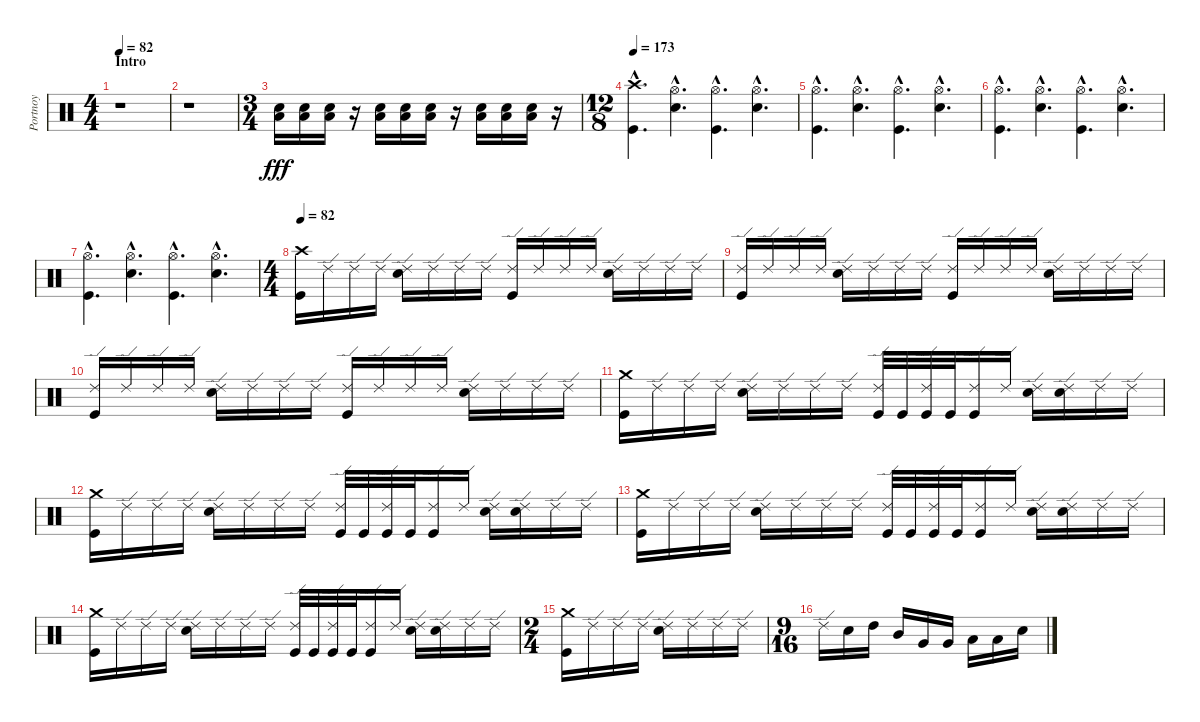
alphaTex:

\track ("Portnoy" "Portnoy") {instrument percussion}
\staff {score}
\articulation defaults
\ts (4 4)
\section ("" "Intro")
\tempo 82
\clef neutral
\ks c
r.1{dy fff} |
r.1 |
\ts (3 4)
("Snare (hit) 2" "Low Floor Tom (hit)").16 ("Snare (hit) 2" "Low Floor Tom (hit)").16 ("Snare (hit) 2" "Low Floor Tom (hit)").16 r.16 ("Snare (hit) 2" "Low Floor Tom (hit)").16 ("Snare (hit) 2" "Low Floor Tom (hit)").16 ("Snare (hit) 2" "Low Floor Tom (hit)").16 r.16 ("Snare (hit) 2" "Low Floor Tom (hit)").16 ("Snare (hit) 2" "Low Floor Tom (hit)").16 ("Snare (hit) 2" "Low Floor Tom (hit)").16 r.16 |
\ts (12 8)
\tempo 173
("Crash high (hit)"{hac} "Kick (hit)"{hac}).4{d} ("Hi-Hat (open)"{hac} "Snare (hit) 2"{hac}).4{d} ("Hi-Hat (open)"{hac} "Kick (hit)"{hac}).4{d} ("Hi-Hat (open)"{hac} "Snare (hit) 2"{hac}).4{d} |
("Hi-Hat (open)"{hac} "Kick (hit)"{hac}).4{d} ("Hi-Hat (open)"{hac} "Snare (hit) 2"{hac}).4{d} ("Hi-Hat (open)"{hac} "Kick (hit)"{hac}).4{d} ("Hi-Hat (open)"{hac} "Snare (hit) 2"{hac}).4{d} |
("Hi-Hat (open)"{hac} "Kick (hit)"{hac}).4{d} ("Hi-Hat (open)"{hac} "Snare (hit) 2"{hac}).4{d} ("Hi-Hat (open)"{hac} "Kick (hit)"{hac}).4{d} ("Hi-Hat (open)"{hac} "Snare (hit) 2"{hac}).4{d} |
("Hi-Hat (open)"{hac} "Kick (hit)"{hac}).4{d} ("Hi-Hat (open)"{hac} "Snare (hit) 2"{hac}).4{d} ("Hi-Hat (open)"{hac} "Kick (hit)"{hac}).4{d} ("Hi-Hat (open)"{hac} "Snare (hit) 2"{hac}).4{d} |
\ts (4 4)
\tempo 82
("Crash high (hit)" "Kick (hit)").16 "Ride (edge) 2".16 "Ride (edge) 2".16 "Ride (edge) 2".16 ("Ride (edge) 2" "Snare (hit) 2").16 "Ride (edge) 2".16 "Ride (edge) 2".16 "Ride (edge) 2".16 ("Ride (edge) 2" "Kick (hit)").16 "Ride (edge) 2".16 "Ride (edge) 2".16 "Ride (edge) 2".16 ("Ride (edge) 2" "Snare (hit) 2").16 "Ride (edge) 2".16 "Ride (edge) 2".16 "Ride (edge) 2".16 |
("Ride (edge) 2" "Kick (hit)").16 "Ride (edge) 2".16 "Ride (edge) 2".16 "Ride (edge) 2".16 ("Ride (edge) 2" "Snare (hit) 2").16 "Ride (edge) 2".16 "Ride (edge) 2".16 "Ride (edge) 2".16 ("Ride (edge) 2" "Kick (hit)").16 "Ride (edge) 2".16 "Ride (edge) 2".16 "Ride (edge) 2".16 ("Ride (edge) 2" "Snare (hit) 2").16 "Ride (edge) 2".16 "Ride (edge) 2".16 "Ride (edge) 2".16 |
("Ride (edge) 2" "Kick (hit)").16 "Ride (edge) 2".16 "Ride (edge) 2".16 "Ride (edge) 2".16 ("Ride (edge) 2" "Snare (hit) 2").16 "Ride (edge) 2".16 "Ride (edge) 2".16 "Ride (edge) 2".16 ("Ride (edge) 2" "Kick (hit)").16 "Ride (edge) 2".16 "Ride (edge) 2".16 "Ride (edge) 2".16 ("Ride (edge) 2" "Snare (hit) 2").16 "Ride (edge) 2".16 "Ride (edge) 2".16 "Ride (edge) 2".16 |
("Crash medium (hit)" "Kick (hit)").16 "Ride (edge) 2".16 "Ride (edge) 2".16 "Ride (edge) 2".16 ("Ride (edge) 2" "Snare (hit) 2").16 "Ride (edge) 2".16 "Ride (edge) 2".16 "Ride (edge) 2".16 ("Ride (edge) 2" "Kick (hit)").32 "Kick (hit)".32 ("Ride (edge) 2" "Kick (hit)").32 "Kick (hit)".32 ("Ride (edge) 2" "Kick (hit)").16 "Ride (edge) 2".16 ("Ride (edge) 2" "Snare (hit) 2").16 ("Ride (edge) 2" "Snare (hit) 2").16 "Ride (edge) 2".16 "Ride (edge) 2".16 |
("Crash medium (hit)" "Kick (hit)").16 "Ride (edge) 2".16 "Ride (edge) 2".16 "Ride (edge) 2".16 ("Ride (edge) 2" "Snare (hit) 2").16 "Ride (edge) 2".16 "Ride (edge) 2".16 "Ride (edge) 2".16 ("Ride (edge) 2" "Kick (hit)").32 "Kick (hit)".32 ("Ride (edge) 2" "Kick (hit)").32 "Kick (hit)".32 ("Ride (edge) 2" "Kick (hit)").16 "Ride (edge) 2".16 ("Ride (edge) 2" "Snare (hit) 2").16 ("Ride (edge) 2" "Snare (hit) 2").16 "Ride (edge) 2".16 "Ride (edge) 2".16 |
("Crash medium (hit)" "Kick (hit)").16 "Ride (edge) 2".16 "Ride (edge) 2".16 "Ride (edge) 2".16 ("Ride (edge) 2" "Snare (hit) 2").16 "Ride (edge) 2".16 "Ride (edge) 2".16 "Ride (edge) 2".16 ("Ride (edge) 2" "Kick (hit)").32 "Kick (hit)".32 ("Ride (edge) 2" "Kick (hit)").32 "Kick (hit)".32 ("Ride (edge) 2" "Kick (hit)").16 "Ride (edge) 2".16 ("Ride (edge) 2" "Snare (hit) 2").16 ("Ride (edge) 2" "Snare (hit) 2").16 "Ride (edge) 2".16 "Ride (edge) 2".16 |
("Crash medium (hit)" "Kick (hit)").16 "Ride (edge) 2".16 "Ride (edge) 2".16 "Ride (edge) 2".16 ("Ride (edge) 2" "Snare (hit) 2").16 "Ride (edge) 2".16 "Ride (edge) 2".16 "Ride (edge) 2".16 ("Ride (edge) 2" "Kick (hit)").32 "Kick (hit)".32 ("Ride (edge) 2" "Kick (hit)").32 "Kick (hit)".32 ("Ride (edge) 2" "Kick (hit)").16 "Ride (edge) 2".16 ("Ride (edge) 2" "Snare (hit) 2").16 ("Ride (edge) 2" "Snare (hit) 2").16 "Ride (edge) 2".16 "Ride (edge) 2".16 |
\ts (2 4)
("Crash medium (hit)" "Kick (hit)").16 "Ride (edge) 2".16 "Ride (edge) 2".16 "Ride (edge) 2".16 ("Ride (edge) 2" "Snare (hit) 2").16 "Ride (edge) 2".16 "Ride (edge) 2".16 "Ride (edge) 2".16 |
\ts (9 16)
"Ride (edge) 2".16 "Snare (hit) 2".16 "High Tom (hit)".16 "Mid Tom (hit)".16 "Very Low Tom (hit)".16 "Very Low Tom (hit)".16 "Low Floor Tom (hit)".16 "Low Floor Tom (hit)".16 "Snare (hit) 2".16
